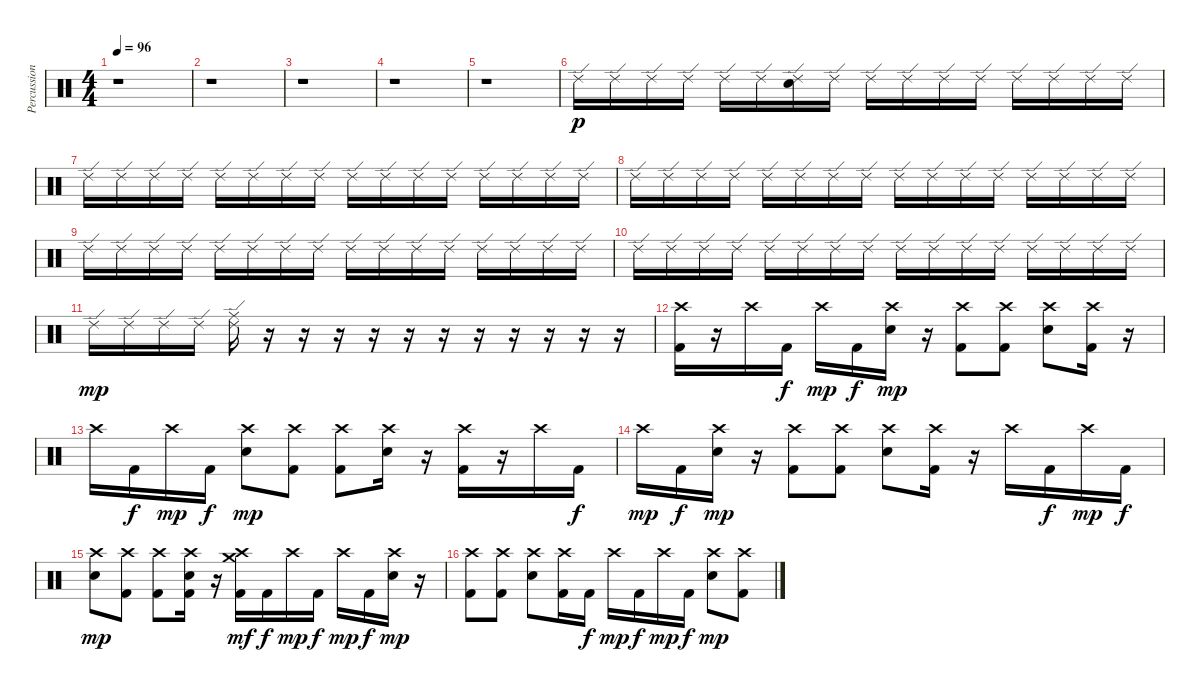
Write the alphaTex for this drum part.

\track ("Percussions" "Percussion") {instrument percussion}
\staff {score}
\articulation defaults
\ts (4 4)
\tempo 96
\clef neutral
\ks c
r.1{dy mp} |
r.1 |
r.1 |
r.1 |
r.1 |
"Ride (edge) 2".16{dy p} "Ride (edge) 2".16 "Ride (edge) 2".16 "Ride (edge) 2".16 "Ride (edge) 2".16 "Ride (edge) 2".16 ("Ride (edge) 2" "Snare (hit)").16 "Ride (edge) 2".16 "Ride (edge) 2".16 "Ride (edge) 2".16 "Ride (edge) 2".16 "Ride (edge) 2".16 "Ride (edge) 2".16 "Ride (edge) 2".16 "Ride (edge) 2".16 "Ride (edge) 2".16 |
"Ride (edge) 2".16 "Ride (edge) 2".16 "Ride (edge) 2".16 "Ride (edge) 2".16 "Ride (edge) 2".16 "Ride (edge) 2".16 "Ride (edge) 2".16 "Ride (edge) 2".16 "Ride (edge) 2".16 "Ride (edge) 2".16 "Ride (edge) 2".16 "Ride (edge) 2".16 "Ride (edge) 2".16 "Ride (edge) 2".16 "Ride (edge) 2".16 "Ride (edge) 2".16 |
"Ride (edge) 2".16 "Ride (edge) 2".16 "Ride (edge) 2".16 "Ride (edge) 2".16 "Ride (edge) 2".16 "Ride (edge) 2".16 "Ride (edge) 2".16 "Ride (edge) 2".16 "Ride (edge) 2".16 "Ride (edge) 2".16 "Ride (edge) 2".16 "Ride (edge) 2".16 "Ride (edge) 2".16 "Ride (edge) 2".16 "Ride (edge) 2".16 "Ride (edge) 2".16 |
"Ride (edge) 2".16 "Ride (edge) 2".16 "Ride (edge) 2".16 "Ride (edge) 2".16 "Ride (edge) 2".16 "Ride (edge) 2".16 "Ride (edge) 2".16 "Ride (edge) 2".16 "Ride (edge) 2".16 "Ride (edge) 2".16 "Ride (edge) 2".16 "Ride (edge) 2".16 "Ride (edge) 2".16 "Ride (edge) 2".16 "Ride (edge) 2".16 "Ride (edge) 2".16 |
"Ride (edge) 2".16 "Ride (edge) 2".16 "Ride (edge) 2".16 "Ride (edge) 2".16 "Ride (edge) 2".16 "Ride (edge) 2".16 "Ride (edge) 2".16 "Ride (edge) 2".16 "Ride (edge) 2".16 "Ride (edge) 2".16 "Ride (edge) 2".16 "Ride (edge) 2".16 "Ride (edge) 2".16 "Ride (edge) 2".16 "Ride (edge) 2".16 "Ride (edge) 2".16 |
"Ride (edge) 2".16{dy mp} "Ride (edge) 2".16 "Ride (edge) 2".16 "Ride (edge) 2".16 ("Ride (edge) 2" "Ride (middle)").16 r.16 r.16 r.16 r.16 r.16 r.16 r.16 r.16 r.16 r.16 r.16 |
("Crash high (hit)" "Kick (hit) 2").16 r.16 "Crash high (hit)".16 "Kick (hit) 2".16{dy f} "Crash high (hit)".16{dy mp} "Kick (hit) 2".16{dy f} ("Crash high (hit)" "Snare (hit) 2").16{dy mp} r.16 ("Crash high (hit)" "Kick (hit) 2").8 ("Crash high (hit)" "Kick (hit) 2").8 ("Crash high (hit)" "Snare (hit) 2").8 ("Crash high (hit)" "Kick (hit) 2").16 r.16 |
"Crash high (hit)".16 "Kick (hit) 2".16{dy f} "Crash high (hit)".16{dy mp} "Kick (hit) 2".16{dy f} ("Crash high (hit)" "Snare (hit) 2").8{dy mp} ("Crash high (hit)" "Kick (hit) 2").8 ("Crash high (hit)" "Kick (hit) 2").8 ("Crash high (hit)" "Snare (hit) 2").16 r.16 ("Crash high (hit)" "Kick (hit) 2").16 r.16 "Crash high (hit)".16 "Kick (hit) 2".16{dy f} |
"Crash high (hit)".16{dy mp} "Kick (hit) 2".16{dy f} ("Crash high (hit)" "Snare (hit) 2").16{dy mp} r.16 ("Crash high (hit)" "Kick (hit) 2").8 ("Crash high (hit)" "Kick (hit) 2").8 ("Crash high (hit)" "Snare (hit) 2").8 ("Crash high (hit)" "Kick (hit) 2").16 r.16 "Crash high (hit)".16 "Kick (hit) 2".16{dy f} "Crash high (hit)".16{dy mp} "Kick (hit) 2".16{dy f} |
("Crash high (hit)" "Snare (hit) 2").8{dy mp} ("Crash high (hit)" "Kick (hit) 2").8 ("Crash high (hit)" "Kick (hit) 2").8 ("Crash high (hit)" "Snare (hit) 2" "Kick (hit) 2").16 r.16 ("Crash high (hit)" "Crash medium (hit)" "Kick (hit) 2").16{dy mf} "Kick (hit) 2".16{dy f} "Crash high (hit)".16{dy mp} "Kick (hit) 2".16{dy f} "Crash high (hit)".16{dy mp} "Kick (hit) 2".16{dy f} ("Crash high (hit)" "Snare (hit) 2").16{dy mp} r.16 |
("Crash high (hit)" "Kick (hit) 2").8 ("Crash high (hit)" "Kick (hit) 2").8 ("Crash high (hit)" "Snare (hit) 2").8 ("Crash high (hit)" "Kick (hit) 2").16 "Kick (hit) 2".16{dy f} "Crash high (hit)".16{dy mp} "Kick (hit) 2".16{dy f} "Crash high (hit)".16{dy mp} "Kick (hit) 2".16{dy f} ("Crash high (hit)" "Snare (hit) 2").8{dy mp} ("Crash high (hit)" "Kick (hit) 2").8
